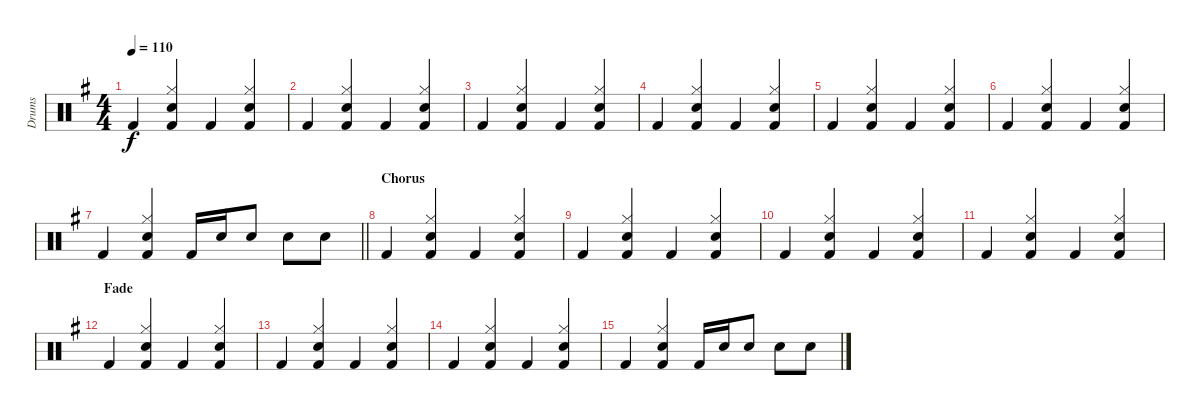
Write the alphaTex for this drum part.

\track ("Drums" "Drums") {instrument percussion}
\staff {score}
\articulation defaults
\ts (4 4)
\tempo 110
\clef neutral
\ks g "Kick (hit) 2".4{dy f}
("Hi-Hat (closed)" "Snare (hit) 2" "Kick (hit) 2").4 "Kick (hit) 2".4 ("Hi-Hat (closed)" "Snare (hit) 2" "Kick (hit) 2").4 |
"Kick (hit) 2".4 ("Hi-Hat (closed)" "Snare (hit) 2" "Kick (hit) 2").4 "Kick (hit) 2".4 ("Hi-Hat (closed)" "Snare (hit) 2" "Kick (hit) 2").4 |
"Kick (hit) 2".4 ("Hi-Hat (closed)" "Snare (hit) 2" "Kick (hit) 2").4 "Kick (hit) 2".4 ("Hi-Hat (closed)" "Snare (hit) 2" "Kick (hit) 2").4 |
"Kick (hit) 2".4 ("Hi-Hat (closed)" "Snare (hit) 2" "Kick (hit) 2").4 "Kick (hit) 2".4 ("Hi-Hat (closed)" "Snare (hit) 2" "Kick (hit) 2").4 |
"Kick (hit) 2".4 ("Hi-Hat (closed)" "Snare (hit) 2" "Kick (hit) 2").4 "Kick (hit) 2".4 ("Hi-Hat (closed)" "Snare (hit) 2" "Kick (hit) 2").4 |
"Kick (hit) 2".4 ("Hi-Hat (closed)" "Snare (hit) 2" "Kick (hit) 2").4 "Kick (hit) 2".4 ("Hi-Hat (closed)" "Snare (hit) 2" "Kick (hit) 2").4 |
\barLineRight lightlight "Kick (hit) 2".4
("Hi-Hat (closed)" "Snare (hit) 2" "Kick (hit) 2").4 "Kick (hit) 2".16 "Snare (hit) 2".16 "Snare (hit) 2".8 "Snare (hit) 2".8 "Snare (hit) 2".8 |
\section ("" "Chorus")
"Kick (hit) 2".4 ("Hi-Hat (closed)" "Snare (hit) 2" "Kick (hit) 2").4 "Kick (hit) 2".4 ("Hi-Hat (closed)" "Snare (hit) 2" "Kick (hit) 2").4 |
"Kick (hit) 2".4 ("Hi-Hat (closed)" "Snare (hit) 2" "Kick (hit) 2").4 "Kick (hit) 2".4 ("Hi-Hat (closed)" "Snare (hit) 2" "Kick (hit) 2").4 |
"Kick (hit) 2".4 ("Hi-Hat (closed)" "Snare (hit) 2" "Kick (hit) 2").4 "Kick (hit) 2".4 ("Hi-Hat (closed)" "Snare (hit) 2" "Kick (hit) 2").4 |
"Kick (hit) 2".4 ("Hi-Hat (closed)" "Snare (hit) 2" "Kick (hit) 2").4 "Kick (hit) 2".4 ("Hi-Hat (closed)" "Snare (hit) 2" "Kick (hit) 2").4 |
\section ("" "Fade")
"Kick (hit) 2".4{volume 0} ("Hi-Hat (closed)" "Snare (hit) 2" "Kick (hit) 2").4 "Kick (hit) 2".4 ("Hi-Hat (closed)" "Snare (hit) 2" "Kick (hit) 2").4 |
"Kick (hit) 2".4 ("Hi-Hat (closed)" "Snare (hit) 2" "Kick (hit) 2").4 "Kick (hit) 2".4 ("Hi-Hat (closed)" "Snare (hit) 2" "Kick (hit) 2").4 |
"Kick (hit) 2".4 ("Hi-Hat (closed)" "Snare (hit) 2" "Kick (hit) 2").4 "Kick (hit) 2".4 ("Hi-Hat (closed)" "Snare (hit) 2" "Kick (hit) 2").4 |
"Kick (hit) 2".4 ("Hi-Hat (closed)" "Snare (hit) 2" "Kick (hit) 2").4 "Kick (hit) 2".16 "Snare (hit) 2".16 "Snare (hit) 2".8 "Snare (hit) 2".8 "Snare (hit) 2".8
